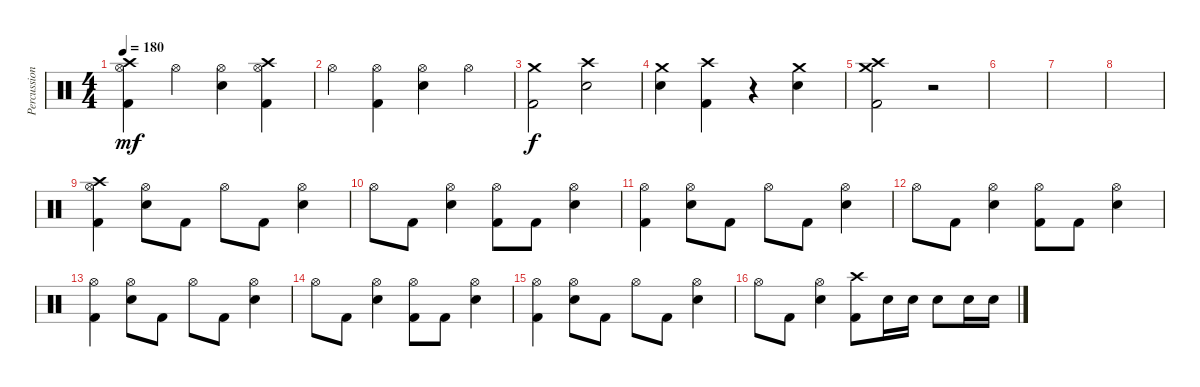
\track ("Percussion" "Percussion") {instrument percussion}
\staff {score}
\articulation defaults
\ts (4 4)
\tempo 180
\clef neutral
\ks c
("Crash high (hit)" "Hi-Hat (open)" "Kick (hit) 2").4{dy mf} "Hi-Hat (open)".4 ("Hi-Hat (open)" "Electric Snare (hit)").4 ("Crash high (hit)" "Hi-Hat (open)" "Kick (hit) 2").4 |
"Hi-Hat (open)".4 ("Hi-Hat (open)" "Kick (hit) 2").4 ("Hi-Hat (open)" "Electric Snare (hit)").4 "Hi-Hat (open)".4 |
("Crash medium (hit)" "Kick (hit) 2").2{dy f} ("Crash high (hit)" "Electric Snare (hit)").2 |
("Crash medium (hit)" "Electric Snare (hit)").4 ("Crash high (hit)" "Kick (hit) 2").4 r.4 ("Crash medium (hit)" "Electric Snare (hit)").4 |
("Crash high (hit)" "Crash medium (hit)" "Kick (hit) 2").2 r.2 |
|
|
|
("Hi-Hat (open)" "Crash high (hit)" "Kick (hit) 2").4 ("Hi-Hat (open)" "Electric Snare (hit)").8 "Kick (hit) 2".8 "Hi-Hat (open)".8 "Kick (hit) 2".8 ("Hi-Hat (open)" "Electric Snare (hit)").4 |
"Hi-Hat (open)".8 "Kick (hit) 2".8 ("Hi-Hat (open)" "Electric Snare (hit)").4 ("Hi-Hat (open)" "Kick (hit) 2").8 "Kick (hit) 2".8 ("Hi-Hat (open)" "Electric Snare (hit)").4 |
("Hi-Hat (open)" "Kick (hit) 2").4 ("Hi-Hat (open)" "Electric Snare (hit)").8 "Kick (hit) 2".8 "Hi-Hat (open)".8 "Kick (hit) 2".8 ("Hi-Hat (open)" "Electric Snare (hit)").4 |
"Hi-Hat (open)".8 "Kick (hit) 2".8 ("Hi-Hat (open)" "Electric Snare (hit)").4 ("Hi-Hat (open)" "Kick (hit) 2").8 "Kick (hit) 2".8 ("Hi-Hat (open)" "Electric Snare (hit)").4 |
("Hi-Hat (open)" "Kick (hit) 2").4 ("Hi-Hat (open)" "Electric Snare (hit)").8 "Kick (hit) 2".8 "Hi-Hat (open)".8 "Kick (hit) 2".8 ("Hi-Hat (open)" "Electric Snare (hit)").4 |
"Hi-Hat (open)".8 "Kick (hit) 2".8 ("Hi-Hat (open)" "Electric Snare (hit)").4 ("Hi-Hat (open)" "Kick (hit) 2").8 "Kick (hit) 2".8 ("Hi-Hat (open)" "Electric Snare (hit)").4 |
("Hi-Hat (open)" "Kick (hit) 2").4 ("Hi-Hat (open)" "Electric Snare (hit)").8 "Kick (hit) 2".8 "Hi-Hat (open)".8 "Kick (hit) 2".8 ("Hi-Hat (open)" "Electric Snare (hit)").4 |
"Hi-Hat (open)".8 "Kick (hit) 2".8 ("Hi-Hat (open)" "Electric Snare (hit)").4 ("Crash high (hit)" "Kick (hit) 2").8 "Electric Snare (hit)".16 "Electric Snare (hit)".16 "Electric Snare (hit)".8 "Electric Snare (hit)".16 "Electric Snare (hit)".16
